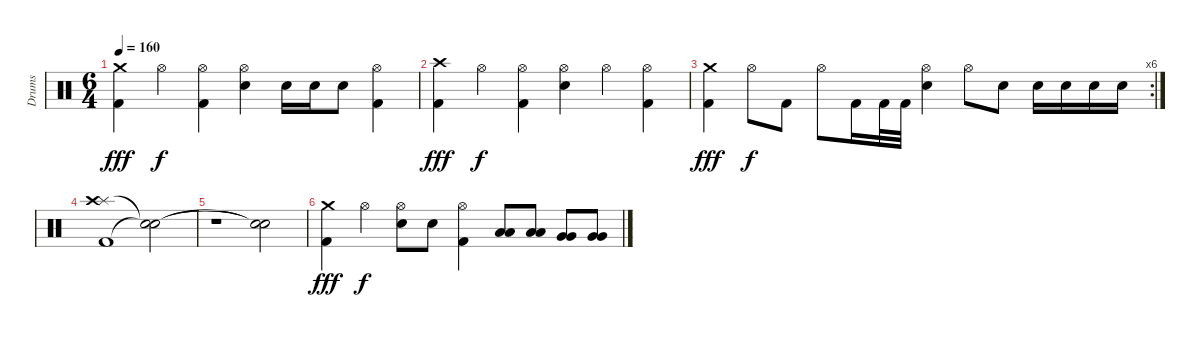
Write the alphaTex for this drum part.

\track ("Drums" "Drums") {instrument percussion}
\staff {score}
\articulation defaults
\ts (6 4)
\tempo 160
\clef neutral
\ks c
("Kick (hit) 2" "Crash medium (hit)").4{dy fff} "Hi-Hat (open)".4{dy f} ("Kick (hit) 2" "Hi-Hat (open)").4 ("Electric Snare (hit)" "Hi-Hat (open)").4 "Electric Snare (hit)".16 "Electric Snare (hit)".16 "Electric Snare (hit)".8 ("Kick (hit) 2" "Hi-Hat (open)").4 |
("Kick (hit) 2" "Crash high (hit)").4{dy fff} "Hi-Hat (open)".4{dy f} ("Kick (hit) 2" "Hi-Hat (open)").4 ("Electric Snare (hit)" "Hi-Hat (open)").4 "Hi-Hat (open)".4 ("Kick (hit) 2" "Hi-Hat (open)").4 |
\rc 6
("Kick (hit) 2" "Crash medium (hit)").4{dy fff} "Hi-Hat (open)".8{dy f} "Kick (hit) 2".8 "Hi-Hat (open)".8 "Kick (hit) 2".16 "Kick (hit) 2".32 "Kick (hit) 2".32 ("Electric Snare (hit)" "Hi-Hat (open)").4 "Hi-Hat (open)".8 "Electric Snare (hit)".8 "Electric Snare (hit)".16 "Electric Snare (hit)".16 "Electric Snare (hit)".16 "Electric Snare (hit)".16 |
("Kick (hit) 2" "Splash (hit)" "Crash high (hit)").1 ("Snare (hit)"{t} "Snare (hit)"{t}).2 |
r.1 ("Snare (hit)"{t} "Snare (hit)"{t}).2 |
("Kick (hit) 2" "Crash medium (hit)").4{dy fff} "Hi-Hat (open)".4{dy f} ("Electric Snare (hit)" "Hi-Hat (open)").8 "Electric Snare (hit)".8 ("Kick (hit) 2" "Hi-Hat (open)").4 ("Low Tom (hit)" "Low Tom (hit)").8 ("Low Tom (hit)" "Low Tom (hit)").8 ("Very Low Tom (hit)" "Very Low Tom (hit)").8 ("Very Low Tom (hit)" "Very Low Tom (hit)").8
